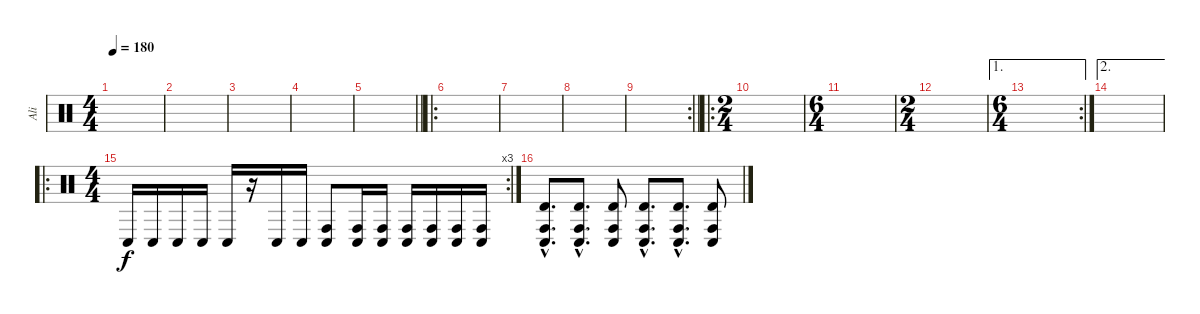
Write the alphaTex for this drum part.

\track ("Ali" "Ali") {instrument percussion}
\staff {score}
\articulation defaults
\ts (4 4)
\tempo 180
\clef neutral
\ks c
|
|
|
|
\barLineRight lightlight
|
\ro
\section ("" "")
|
|
|
\rc 2
\barLineRight lightlight
|
\ro
\ts (2 4)
\section ("" "")
|
\ts (6 4)
|
\ts (2 4)
|
\ae 1
\rc 2
\ts (6 4)
|
\ae 2
|
\ro
\rc 3
\ts (4 4)
\section ("" "")
"Conga low (hit)".16 "Conga low (hit)".16 "Conga low (hit)".16 "Conga low (hit)".16 "Conga low (hit)".16 r.16 "Conga low (hit)".16 "Conga low (hit)".16 ("Conga high (hit)" "Conga low (hit)").8 ("Conga high (hit)" "Conga low (hit)").16 ("Conga high (hit)" "Conga low (hit)").16 ("Conga high (hit)" "Conga low (hit)").16 ("Conga high (hit)" "Conga low (hit)").16 ("Conga high (hit)" "Conga low (hit)").16 ("Conga high (hit)" "Conga low (hit)").16 |
("Timbale high (hit)"{hac} "Conga high (hit)"{hac} "Conga low (hit)"{hac}).8{d} ("Timbale high (hit)"{hac} "Conga high (hit)"{hac} "Conga low (hit)"{hac}).8{d} ("Timbale high (hit)" "Conga high (hit)" "Conga low (hit)").8 ("Timbale high (hit)"{hac} "Conga high (hit)"{hac} "Conga low (hit)"{hac}).8{d} ("Timbale high (hit)"{hac} "Conga high (hit)"{hac} "Conga low (hit)"{hac}).8{d} ("Timbale high (hit)" "Conga high (hit)" "Conga low (hit)").8
